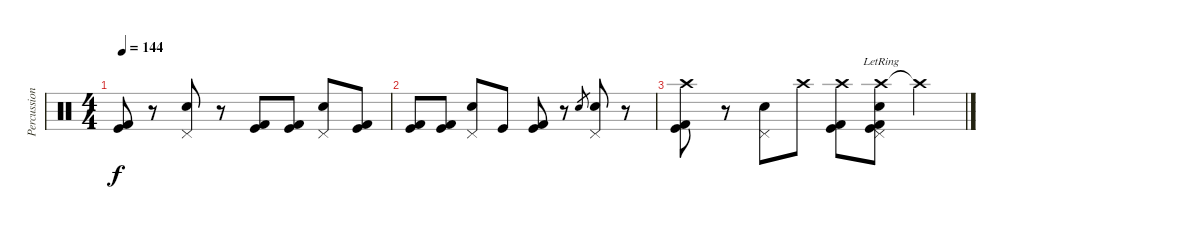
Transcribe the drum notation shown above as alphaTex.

\track ("Percussions" "Percussion") {instrument percussion}
\staff {score}
\articulation defaults
\ts (4 4)
\tempo 144
\clef neutral
\ks c
("Kick (hit)" "Kick (hit) 2").8{dy f} r.8 ("Pedal Hi-Hat (hit)" "Snare (hit) 2").8 r.8 ("Kick (hit)" "Kick (hit) 2").8 ("Kick (hit)" "Kick (hit) 2").8 ("Pedal Hi-Hat (hit)" "Snare (hit) 2").8 ("Kick (hit)" "Kick (hit) 2").8 |
("Kick (hit)" "Kick (hit) 2").8 ("Kick (hit)" "Kick (hit) 2").8 ("Pedal Hi-Hat (hit)" "Snare (hit) 2").8 "Kick (hit)".8 ("Kick (hit)" "Kick (hit) 2").8 r.8 "Snare (hit) 2".8{gr} ("Pedal Hi-Hat (hit)" "Snare (hit) 2").8 r.8 |
("Crash high (hit)" "Kick (hit)" "Kick (hit) 2").8 r.8 ("Pedal Hi-Hat (hit)" "Snare (hit) 2").8 "Crash high (hit)".8 ("Crash high (hit)" "Kick (hit)" "Kick (hit) 2").8 ("Crash high (hit)"{lr} "Pedal Hi-Hat (hit)" "Snare (hit) 2" "Kick (hit)" "Kick (hit) 2").8 "Crash high (hit)"{t}.4
